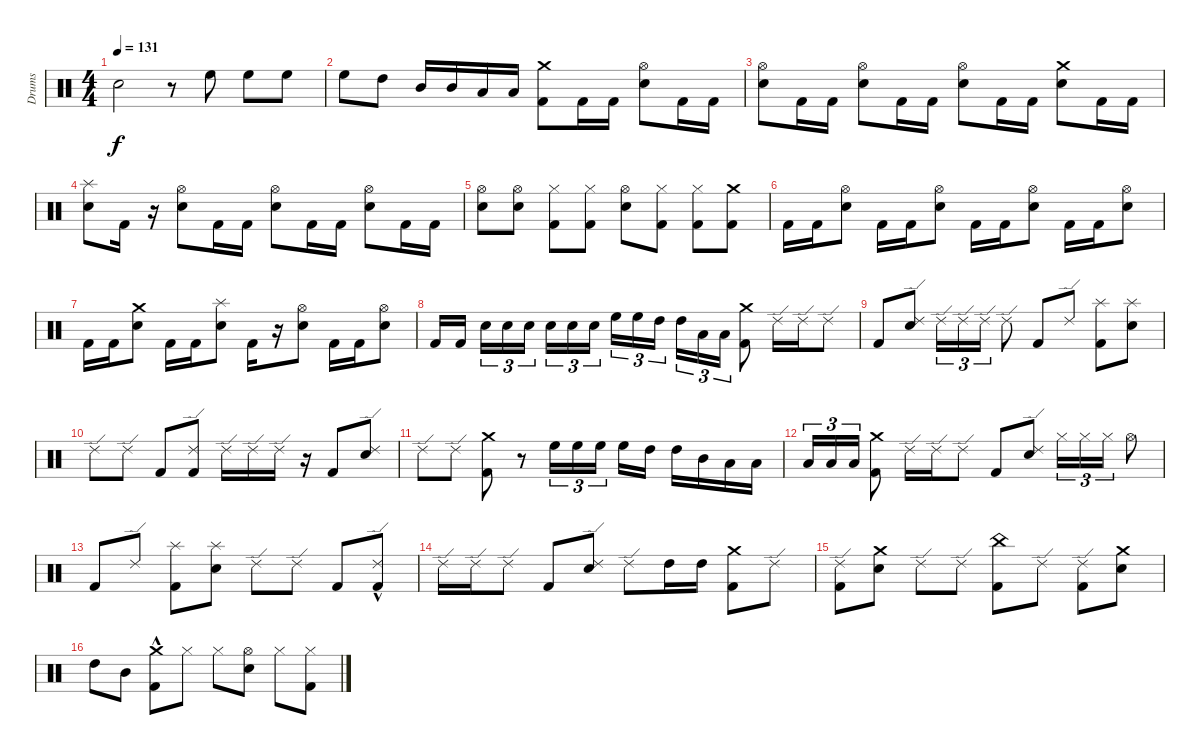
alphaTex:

\track ("Drums" "Drums") {instrument percussion}
\staff {score}
\articulation defaults
\ts (4 4)
\tempo 131
\clef neutral
\ks c "Snare (hit)"{t}.2{dy f}
r.8 "High Floor Tom (hit)".8{volume 11} "High Floor Tom (hit)".8{volume 13} "High Floor Tom (hit)".8{volume 14} |
"High Floor Tom (hit)".8{volume 16} "High Tom (hit)".8 "Mid Tom (hit)".16 "Mid Tom (hit)".16 "Low Tom (hit)".16 "Low Tom (hit)".16 ("Crash medium (hit)" "Kick (hit) 2").8 "Kick (hit) 2".16 "Kick (hit) 2".16 ("Hi-Hat (open)" "Electric Snare (hit)").8 "Kick (hit) 2".16 "Kick (hit) 2".16 |
("Hi-Hat (open)" "Electric Snare (hit)").8 "Kick (hit) 2".16 "Kick (hit) 2".16 ("Hi-Hat (open)" "Electric Snare (hit)").8 "Kick (hit) 2".16 "Kick (hit) 2".16 ("Hi-Hat (open)" "Electric Snare (hit)").8 "Kick (hit) 2".16 "Kick (hit) 2".16 ("Crash medium (hit)" "Electric Snare (hit)").8 "Kick (hit) 2".16 "Kick (hit) 2".16 |
("Splash (hit)" "Electric Snare (hit)").8 "Kick (hit) 2".16 r.16 ("Electric Snare (hit)" "Hi-Hat (open)").8 "Kick (hit) 2".16 "Kick (hit) 2".16 ("Electric Snare (hit)" "Hi-Hat (open)").8 "Kick (hit) 2".16 "Kick (hit) 2".16 ("Electric Snare (hit)" "Hi-Hat (open)").8 "Kick (hit) 2".16 "Kick (hit) 2".16 |
("Electric Snare (hit)" "Hi-Hat (open)").8 ("Hi-Hat (open)" "Electric Snare (hit)").8 ("Hi-Hat (closed)" "Kick (hit) 2").8 ("Hi-Hat (closed)" "Kick (hit) 2").8 ("Hi-Hat (open)" "Electric Snare (hit)").8 ("Hi-Hat (closed)" "Kick (hit) 2").8 ("Hi-Hat (closed)" "Kick (hit) 2").8 ("Crash medium (hit)" "Kick (hit) 2").8 |
"Kick (hit) 2".16 "Kick (hit) 2".16 ("Hi-Hat (open)" "Electric Snare (hit)").8 "Kick (hit) 2".16 "Kick (hit) 2".16 ("Hi-Hat (open)" "Electric Snare (hit)").8 "Kick (hit) 2".16 "Kick (hit) 2".16 ("Hi-Hat (open)" "Electric Snare (hit)").8 "Kick (hit) 2".16 "Kick (hit) 2".16 ("Hi-Hat (open)" "Electric Snare (hit)").8 |
"Kick (hit) 2".16 "Kick (hit) 2".16 ("Crash medium (hit)" "Electric Snare (hit)").8 "Kick (hit) 2".16 "Kick (hit) 2".16 ("Splash (hit)" "Electric Snare (hit)").8 "Kick (hit) 2".16 r.16 ("Electric Snare (hit)" "Hi-Hat (open)").8 "Kick (hit) 2".16 "Kick (hit) 2".16 ("Electric Snare (hit)" "Hi-Hat (open)").8 |
"Kick (hit) 2".16 "Kick (hit) 2".16 "Electric Snare (hit)".16{tu (3 2) volume 9} "Electric Snare (hit)".16{tu (3 2) volume 10} "Electric Snare (hit)".16{tu (3 2) volume 11} "Electric Snare (hit)".16{tu (3 2) volume 12} "Electric Snare (hit)".16{tu (3 2) volume 14} "Electric Snare (hit)".16{tu (3 2) volume 15} "High Floor Tom (hit)".16{tu (3 2) volume 16} "High Floor Tom (hit)".16{tu (3 2)} "High Tom (hit)".16{tu (3 2)} "High Tom (hit)".16{tu (3 2)} "Low Tom (hit)".16{tu (3 2)} "Low Tom (hit)".16{tu (3 2)} ("Crash medium (hit)" "Kick (hit) 2").8 "Ride (edge) 2".16 "Ride (edge) 2".16 "Ride (edge) 2".8 |
"Kick (hit) 2".8 ("Ride (edge) 2" "Electric Snare (hit)").8 "Ride (edge) 2".16{tu (3 2) volume 11} "Ride (edge) 2".16{tu (3 2) volume 13} "Ride (edge) 2".16{tu (3 2) volume 14} "Ride (edge) 2".8{volume 16} "Kick (hit) 2".8 "Ride (edge) 2".8 ("Splash (hit)" "Kick (hit) 2").8 ("Splash (hit)" "Electric Snare (hit)").8 |
"Ride (edge) 2".8 "Ride (edge) 2".8 "Kick (hit) 2".8 ("Ride (edge) 2" "Kick (hit) 2").8 "Ride (edge) 2".16 "Ride (edge) 2".16 "Ride (edge) 2".16 r.16 "Kick (hit) 2".8 ("Ride (edge) 2" "Electric Snare (hit)").8 |
"Ride (edge) 2".8 "Ride (edge) 2".8 ("Crash medium (hit)" "Kick (hit) 2").8 r.8 "High Floor Tom (hit)".16{tu (3 2) volume 11} "High Floor Tom (hit)".16{tu (3 2) volume 12} "High Floor Tom (hit)".16{tu (3 2) volume 12} "High Floor Tom (hit)".16{volume 12} "High Tom (hit)".16{volume 13} "High Tom (hit)".16{volume 13} "Mid Tom (hit)".16{volume 14} "Low Tom (hit)".16{volume 14} "Low Tom (hit)".16{volume 15} |
"Low Tom (hit)".16{tu (3 2) volume 15} "Low Tom (hit)".16{tu (3 2) volume 16} "Low Tom (hit)".16{tu (3 2) volume 16} ("Crash medium (hit)" "Kick (hit) 2").8 "Ride (edge) 2".16 "Ride (edge) 2".16 "Ride (edge) 2".8 "Kick (hit) 2".8 ("Ride (edge) 2" "Electric Snare (hit)").8 "Hi-Hat (closed)".16{tu (3 2) volume 11} "Hi-Hat (closed)".16{tu (3 2) volume 13} "Hi-Hat (closed)".16{tu (3 2) volume 14} "Hi-Hat (open)".8{volume 16} |
"Kick (hit) 2".8 "Ride (edge) 2".8 ("Splash (hit)" "Kick (hit) 2").8 ("Splash (hit)" "Electric Snare (hit)").8 "Ride (edge) 2".8 "Ride (edge) 2".8 "Kick (hit) 2".8 ("Ride (edge) 2" "Kick (hit) 2"{hac}).8 |
"Ride (edge) 2".16 "Ride (edge) 2".16 "Ride (edge) 2".8 "Kick (hit) 2".8 ("Ride (edge) 2" "Electric Snare (hit)").8 "Ride (edge) 2".8 "High Tom (hit)".16 "High Tom (hit)".16 ("Crash medium (hit)" "Kick (hit) 2").8 "Ride (edge) 2".8 |
("Ride (edge) 2" "Kick (hit) 2").8 ("Crash medium (hit)" "Electric Snare (hit)").8 "Ride (edge) 2".8 "Ride (edge) 2".8 ("China (hit)" "Kick (hit) 2").8 "Ride (edge) 2".8 ("Ride (edge) 2" "Kick (hit) 2").8 ("Crash medium (hit)" "Electric Snare (hit)").8 |
"High Tom (hit)".8 "Mid Tom (hit)".8 ("Crash medium (hit)" "Kick (hit) 2"{hac}).8 "Hi-Hat (closed)".8 "Hi-Hat (closed)".8 ("Hi-Hat (open)" "Electric Snare (hit)").8 "Hi-Hat (closed)".8 ("Hi-Hat (closed)" "Kick (hit) 2").8
